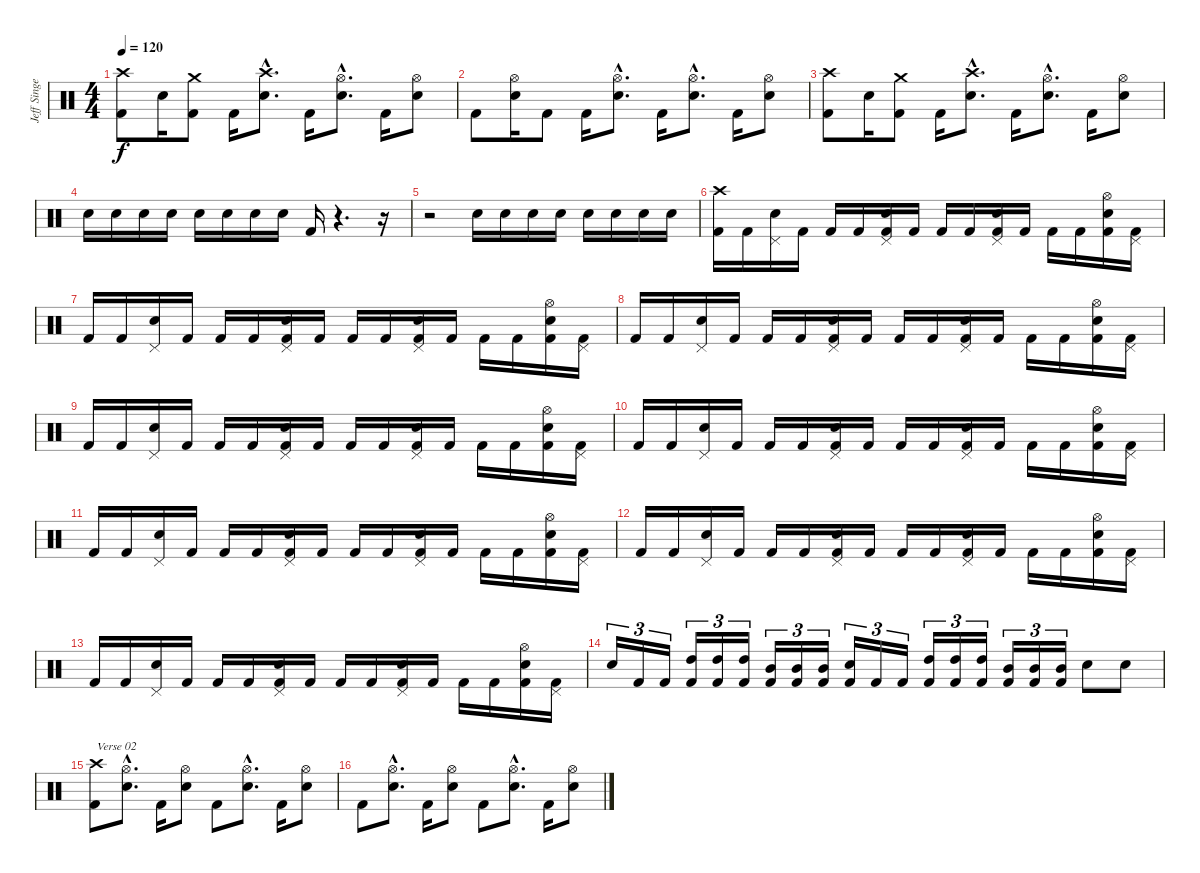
\track ("Jeff Singer" "Jeff Singe") {instrument percussion}
\staff {score}
\articulation defaults
\ts (4 4)
\tempo 120
\clef neutral
\ks c
("Crash high (hit)" "Kick (hit) 2").8{dy f} "Snare (hit) 2".16 ("Crash medium (hit)" "Kick (hit) 2").8 "Kick (hit) 2".16 ("Crash high (hit)"{hac} "Snare (hit) 2"{hac}).8{d} "Kick (hit) 2".16 ("Hi-Hat (open)"{hac} "Snare (hit) 2"{hac}).8{d} "Kick (hit) 2".16 ("Hi-Hat (open)" "Snare (hit) 2").8 |
"Kick (hit) 2".8 ("Hi-Hat (open)" "Snare (hit) 2").16 "Kick (hit) 2".8 "Kick (hit) 2".16 ("Hi-Hat (open)"{hac} "Snare (hit) 2"{hac}).8{d} "Kick (hit) 2".16 ("Hi-Hat (open)"{hac} "Snare (hit) 2"{hac}).8{d} "Kick (hit) 2".16 ("Hi-Hat (open)" "Snare (hit) 2").8 |
("Crash high (hit)" "Kick (hit) 2").8 "Snare (hit) 2".16 ("Crash medium (hit)" "Kick (hit) 2").8 "Kick (hit) 2".16 ("Crash high (hit)"{hac} "Snare (hit) 2"{hac}).8{d} "Kick (hit) 2".16 ("Hi-Hat (open)"{hac} "Snare (hit) 2"{hac}).8{d} "Kick (hit) 2".16 ("Hi-Hat (open)" "Snare (hit) 2").8 |
"Snare (hit) 2".16 "Snare (hit) 2".16 "Snare (hit) 2".16 "Snare (hit) 2".16 "Snare (hit) 2".16 "Snare (hit) 2".16 "Snare (hit) 2".16 "Snare (hit) 2".16 "Kick (hit) 2".16 r.4{d} r.16 |
r.2 "Snare (hit) 2".16 "Snare (hit) 2".16 "Snare (hit) 2".16 "Snare (hit) 2".16 "Snare (hit) 2".16 "Snare (hit) 2".16 "Snare (hit) 2".16 "Snare (hit) 2".16 |
("Crash high (hit)" "Kick (hit) 2").16 "Kick (hit) 2".16 ("Pedal Hi-Hat (hit)" "Snare (hit) 2").16 "Kick (hit) 2".16 "Kick (hit) 2".16 "Kick (hit) 2".16 ("Pedal Hi-Hat (hit)" "Snare (hit) 2" "Kick (hit) 2").16 "Kick (hit) 2".16 "Kick (hit) 2".16 "Kick (hit) 2".16 ("Pedal Hi-Hat (hit)" "Snare (hit) 2" "Kick (hit) 2").16 "Kick (hit) 2".16 "Kick (hit) 2".16 "Kick (hit) 2".16 ("Hi-Hat (open)" "Snare (hit) 2" "Kick (hit) 2").16 ("Pedal Hi-Hat (hit)" "Kick (hit) 2").16 |
"Kick (hit) 2".16 "Kick (hit) 2".16 ("Pedal Hi-Hat (hit)" "Snare (hit) 2").16 "Kick (hit) 2".16 "Kick (hit) 2".16 "Kick (hit) 2".16 ("Pedal Hi-Hat (hit)" "Snare (hit) 2" "Kick (hit) 2").16 "Kick (hit) 2".16 "Kick (hit) 2".16 "Kick (hit) 2".16 ("Pedal Hi-Hat (hit)" "Snare (hit) 2" "Kick (hit) 2").16 "Kick (hit) 2".16 "Kick (hit) 2".16 "Kick (hit) 2".16 ("Hi-Hat (open)" "Snare (hit) 2" "Kick (hit) 2").16 ("Pedal Hi-Hat (hit)" "Kick (hit) 2").16 |
"Kick (hit) 2".16 "Kick (hit) 2".16 ("Pedal Hi-Hat (hit)" "Snare (hit) 2").16 "Kick (hit) 2".16 "Kick (hit) 2".16 "Kick (hit) 2".16 ("Pedal Hi-Hat (hit)" "Snare (hit) 2" "Kick (hit) 2").16 "Kick (hit) 2".16 "Kick (hit) 2".16 "Kick (hit) 2".16 ("Pedal Hi-Hat (hit)" "Snare (hit) 2" "Kick (hit) 2").16 "Kick (hit) 2".16 "Kick (hit) 2".16 "Kick (hit) 2".16 ("Hi-Hat (open)" "Snare (hit) 2" "Kick (hit) 2").16 ("Pedal Hi-Hat (hit)" "Kick (hit) 2").16 |
"Kick (hit) 2".16 "Kick (hit) 2".16 ("Pedal Hi-Hat (hit)" "Snare (hit) 2").16 "Kick (hit) 2".16 "Kick (hit) 2".16 "Kick (hit) 2".16 ("Pedal Hi-Hat (hit)" "Snare (hit) 2" "Kick (hit) 2").16 "Kick (hit) 2".16 "Kick (hit) 2".16 "Kick (hit) 2".16 ("Pedal Hi-Hat (hit)" "Snare (hit) 2" "Kick (hit) 2").16 "Kick (hit) 2".16 "Kick (hit) 2".16 "Kick (hit) 2".16 ("Hi-Hat (open)" "Snare (hit) 2" "Kick (hit) 2").16 ("Pedal Hi-Hat (hit)" "Kick (hit) 2").16 |
"Kick (hit) 2".16 "Kick (hit) 2".16 ("Pedal Hi-Hat (hit)" "Snare (hit) 2").16 "Kick (hit) 2".16 "Kick (hit) 2".16 "Kick (hit) 2".16 ("Pedal Hi-Hat (hit)" "Snare (hit) 2" "Kick (hit) 2").16 "Kick (hit) 2".16 "Kick (hit) 2".16 "Kick (hit) 2".16 ("Pedal Hi-Hat (hit)" "Snare (hit) 2" "Kick (hit) 2").16 "Kick (hit) 2".16 "Kick (hit) 2".16 "Kick (hit) 2".16 ("Hi-Hat (open)" "Snare (hit) 2" "Kick (hit) 2").16 ("Pedal Hi-Hat (hit)" "Kick (hit) 2").16 |
"Kick (hit) 2".16 "Kick (hit) 2".16 ("Pedal Hi-Hat (hit)" "Snare (hit) 2").16 "Kick (hit) 2".16 "Kick (hit) 2".16 "Kick (hit) 2".16 ("Pedal Hi-Hat (hit)" "Snare (hit) 2" "Kick (hit) 2").16 "Kick (hit) 2".16 "Kick (hit) 2".16 "Kick (hit) 2".16 ("Pedal Hi-Hat (hit)" "Snare (hit) 2" "Kick (hit) 2").16 "Kick (hit) 2".16 "Kick (hit) 2".16 "Kick (hit) 2".16 ("Hi-Hat (open)" "Snare (hit) 2" "Kick (hit) 2").16 ("Pedal Hi-Hat (hit)" "Kick (hit) 2").16 |
"Kick (hit) 2".16 "Kick (hit) 2".16 ("Pedal Hi-Hat (hit)" "Snare (hit) 2").16 "Kick (hit) 2".16 "Kick (hit) 2".16 "Kick (hit) 2".16 ("Pedal Hi-Hat (hit)" "Snare (hit) 2" "Kick (hit) 2").16 "Kick (hit) 2".16 "Kick (hit) 2".16 "Kick (hit) 2".16 ("Pedal Hi-Hat (hit)" "Snare (hit) 2" "Kick (hit) 2").16 "Kick (hit) 2".16 "Kick (hit) 2".16 "Kick (hit) 2".16 ("Hi-Hat (open)" "Snare (hit) 2" "Kick (hit) 2").16 ("Pedal Hi-Hat (hit)" "Kick (hit) 2").16 |
"Kick (hit) 2".16 "Kick (hit) 2".16 ("Pedal Hi-Hat (hit)" "Snare (hit) 2").16 "Kick (hit) 2".16 "Kick (hit) 2".16 "Kick (hit) 2".16 ("Pedal Hi-Hat (hit)" "Snare (hit) 2" "Kick (hit) 2").16 "Kick (hit) 2".16 "Kick (hit) 2".16 "Kick (hit) 2".16 ("Pedal Hi-Hat (hit)" "Snare (hit) 2" "Kick (hit) 2").16 "Kick (hit) 2".16 "Kick (hit) 2".16 "Kick (hit) 2".16 ("Hi-Hat (open)" "Snare (hit) 2" "Kick (hit) 2").16 ("Pedal Hi-Hat (hit)" "Kick (hit) 2").16 |
"Snare (hit) 2".16{tu (3 2)} "Kick (hit) 2".16{tu (3 2)} "Kick (hit) 2".16{tu (3 2)} ("High Tom (hit)" "Kick (hit) 2").16{tu (3 2)} ("High Tom (hit)" "Kick (hit) 2").16{tu (3 2)} ("High Tom (hit)" "Kick (hit) 2").16{tu (3 2)} ("Mid Tom (hit)" "Kick (hit) 2").16{tu (3 2)} ("Mid Tom (hit)" "Kick (hit) 2").16{tu (3 2)} ("Mid Tom (hit)" "Kick (hit) 2").16{tu (3 2)} ("Snare (hit) 2" "Kick (hit) 2").16{tu (3 2)} "Kick (hit) 2".16{tu (3 2)} "Kick (hit) 2".16{tu (3 2)} ("High Tom (hit)" "Kick (hit) 2").16{tu (3 2)} ("High Tom (hit)" "Kick (hit) 2").16{tu (3 2)} ("High Tom (hit)" "Kick (hit) 2").16{tu (3 2)} ("Mid Tom (hit)" "Kick (hit) 2").16{tu (3 2)} ("Mid Tom (hit)" "Kick (hit) 2").16{tu (3 2)} ("Mid Tom (hit)" "Kick (hit) 2").16{tu (3 2)} "Snare (hit) 2".8 "Snare (hit) 2".8 |
("Crash high (hit)" "Kick (hit) 2").8{txt "Verse 02"} ("Hi-Hat (open)"{hac} "Snare (hit) 2"{hac}).8{d} "Kick (hit) 2".16 ("Hi-Hat (open)" "Snare (hit) 2").8 "Kick (hit) 2".8 ("Hi-Hat (open)"{hac} "Snare (hit) 2"{hac}).8{d} "Kick (hit) 2".16 ("Hi-Hat (open)" "Snare (hit) 2").8 |
"Kick (hit) 2".8 ("Hi-Hat (open)"{hac} "Snare (hit) 2"{hac}).8{d} "Kick (hit) 2".16 ("Hi-Hat (open)" "Snare (hit) 2").8 "Kick (hit) 2".8 ("Hi-Hat (open)"{hac} "Snare (hit) 2"{hac}).8{d} "Kick (hit) 2".16 ("Hi-Hat (open)" "Snare (hit) 2").8
